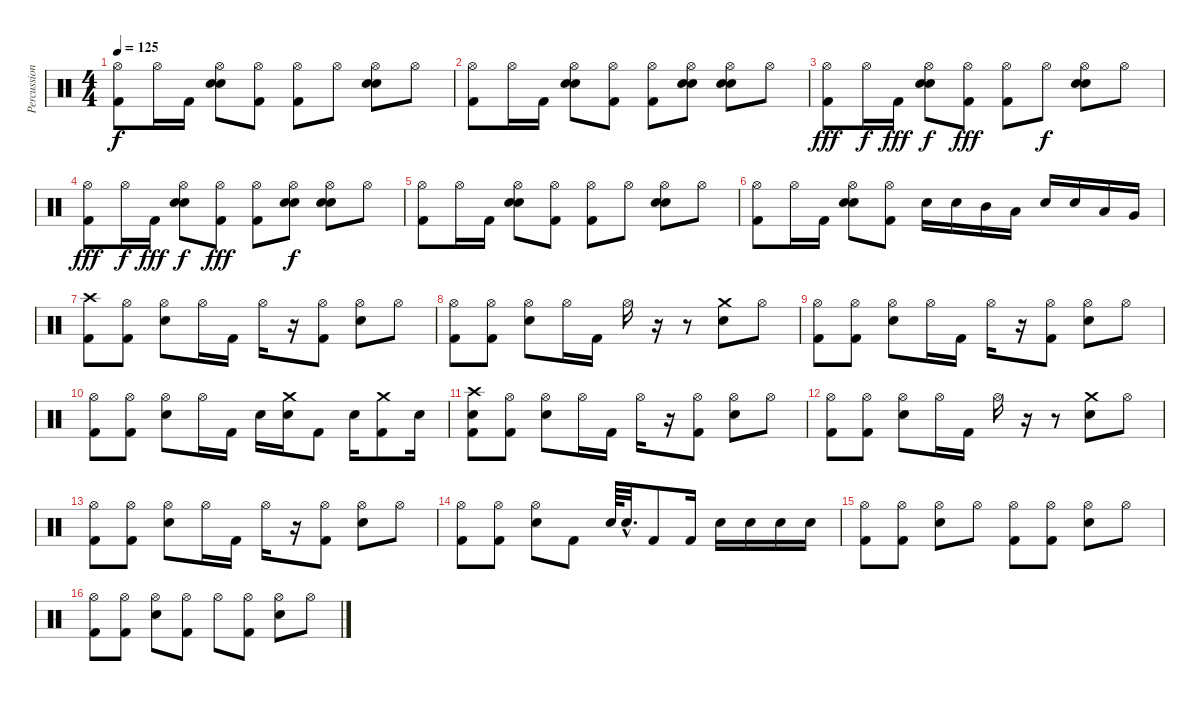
\track ("Percussion" "Percussion") {instrument percussion}
\staff {score}
\articulation defaults
\ts (4 4)
\tempo 125
\clef neutral
\ks c
("Hi-Hat (open)" "Kick (hit) 2").8{dy f} "Hi-Hat (open)".16 "Kick (hit) 2".16 ("Hand Clap (hit)" "Hi-Hat (open)" "Electric Snare (hit)").8 ("Hi-Hat (open)" "Kick (hit) 2").8 ("Hi-Hat (open)" "Kick (hit) 2").8 "Hi-Hat (open)".8 ("Hand Clap (hit)" "Hi-Hat (open)" "Electric Snare (hit)").8 "Hi-Hat (open)".8 |
("Hi-Hat (open)" "Kick (hit) 2").8 "Hi-Hat (open)".16 "Kick (hit) 2".16 ("Hand Clap (hit)" "Hi-Hat (open)" "Electric Snare (hit)").8 ("Hi-Hat (open)" "Kick (hit) 2").8 ("Hi-Hat (open)" "Kick (hit) 2").8 ("Hand Clap (hit)" "Hi-Hat (open)" "Electric Snare (hit)").8 ("Hand Clap (hit)" "Hi-Hat (open)" "Electric Snare (hit)").8 "Hi-Hat (open)".8 |
("Hi-Hat (open)" "Kick (hit) 2").8{dy fff} "Hi-Hat (open)".16{dy f} "Kick (hit) 2".16{dy fff} ("Hand Clap (hit)" "Hi-Hat (open)" "Electric Snare (hit)").8{dy f} ("Hi-Hat (open)" "Kick (hit) 2").8{dy fff} ("Hi-Hat (open)" "Kick (hit) 2").8 "Hi-Hat (open)".8{dy f} ("Hand Clap (hit)" "Hi-Hat (open)" "Electric Snare (hit)").8 "Hi-Hat (open)".8 |
("Hi-Hat (open)" "Kick (hit) 2").8{dy fff} "Hi-Hat (open)".16{dy f} "Kick (hit) 2".16{dy fff} ("Hand Clap (hit)" "Hi-Hat (open)" "Electric Snare (hit)").8{dy f} ("Hi-Hat (open)" "Kick (hit) 2").8{dy fff} ("Hi-Hat (open)" "Kick (hit) 2").8 ("Hand Clap (hit)" "Hi-Hat (open)" "Electric Snare (hit)").8{dy f} ("Hand Clap (hit)" "Hi-Hat (open)" "Electric Snare (hit)").8 "Hi-Hat (open)".8 |
("Hi-Hat (open)" "Kick (hit) 2").8 "Hi-Hat (open)".16 "Kick (hit) 2".16 ("Hand Clap (hit)" "Hi-Hat (open)" "Electric Snare (hit)").8 ("Hi-Hat (open)" "Kick (hit) 2").8 ("Hi-Hat (open)" "Kick (hit) 2").8 "Hi-Hat (open)".8 ("Hand Clap (hit)" "Hi-Hat (open)" "Electric Snare (hit)").8 "Hi-Hat (open)".8 |
("Hi-Hat (open)" "Kick (hit) 2").8 "Hi-Hat (open)".16 "Kick (hit) 2".16 ("Hand Clap (hit)" "Hi-Hat (open)" "Electric Snare (hit)").8 ("Hi-Hat (open)" "Kick (hit) 2").8 "Electric Snare (hit)".16 "Electric Snare (hit)".16 "Mid Tom (hit)".16 "Low Tom (hit)".16 "Electric Snare (hit)".16 "Electric Snare (hit)".16 "Low Tom (hit)".16 "Very Low Tom (hit)".16 |
("Crash high (hit)" "Kick (hit) 2").8 ("Hi-Hat (open)" "Kick (hit) 2").8 ("Hi-Hat (open)" "Electric Snare (hit)").8 "Hi-Hat (open)".16 "Kick (hit) 2".16 "Hi-Hat (open)".16 r.16 ("Hi-Hat (open)" "Kick (hit) 2").8 ("Hi-Hat (open)" "Electric Snare (hit)").8 "Hi-Hat (open)".8 |
("Hi-Hat (open)" "Kick (hit) 2").8 ("Hi-Hat (open)" "Kick (hit) 2").8 ("Hi-Hat (open)" "Electric Snare (hit)").8 "Hi-Hat (open)".16 "Kick (hit) 2".16 "Hi-Hat (open)".16 r.16 r.8 ("Crash medium (hit)" "Electric Snare (hit)").8 "Hi-Hat (open)".8 |
("Hi-Hat (open)" "Kick (hit) 2").8 ("Hi-Hat (open)" "Kick (hit) 2").8 ("Hi-Hat (open)" "Electric Snare (hit)").8 "Hi-Hat (open)".16 "Kick (hit) 2".16 "Hi-Hat (open)".16 r.16 ("Hi-Hat (open)" "Kick (hit) 2").8 ("Hi-Hat (open)" "Electric Snare (hit)").8 "Hi-Hat (open)".8 |
("Hi-Hat (open)" "Kick (hit) 2").8 ("Hi-Hat (open)" "Kick (hit) 2").8 ("Hi-Hat (open)" "Electric Snare (hit)").8 "Hi-Hat (open)".16 "Kick (hit) 2".16 "Electric Snare (hit)".16 ("Crash medium (hit)" "Electric Snare (hit)").16 "Kick (hit) 2".8 "Electric Snare (hit)".16 ("Crash medium (hit)" "Kick (hit) 2").8 "Electric Snare (hit)".16 |
("Crash high (hit)" "Electric Snare (hit)" "Kick (hit) 2").8 ("Hi-Hat (open)" "Kick (hit) 2").8 ("Hi-Hat (open)" "Electric Snare (hit)").8 "Hi-Hat (open)".16 "Kick (hit) 2".16 "Hi-Hat (open)".16 r.16 ("Hi-Hat (open)" "Kick (hit) 2").8 ("Hi-Hat (open)" "Electric Snare (hit)").8 "Hi-Hat (open)".8 |
("Hi-Hat (open)" "Kick (hit) 2").8 ("Hi-Hat (open)" "Kick (hit) 2").8 ("Hi-Hat (open)" "Electric Snare (hit)").8 "Hi-Hat (open)".16 "Kick (hit) 2".16 "Hi-Hat (open)".16 r.16 r.8 ("Crash medium (hit)" "Electric Snare (hit)").8 "Hi-Hat (open)".8 |
("Hi-Hat (open)" "Kick (hit) 2").8 ("Hi-Hat (open)" "Kick (hit) 2").8 ("Hi-Hat (open)" "Electric Snare (hit)").8 "Hi-Hat (open)".16 "Kick (hit) 2".16 "Hi-Hat (open)".16 r.16 ("Hi-Hat (open)" "Kick (hit) 2").8 ("Hi-Hat (open)" "Electric Snare (hit)").8 "Hi-Hat (open)".8 |
("Hi-Hat (open)" "Kick (hit) 2").8 ("Hi-Hat (open)" "Kick (hit) 2").8 ("Hi-Hat (open)" "Electric Snare (hit)").8 "Kick (hit) 2".8 "Electric Snare (hit)".64 "Electric Snare (hit)"{hac}.32{d} "Kick (hit) 2".8 "Kick (hit) 2".16 "Electric Snare (hit)".16 "Electric Snare (hit)".16 "Electric Snare (hit)".16 "Electric Snare (hit)".16 |
("Hi-Hat (open)" "Kick (hit) 2").8 ("Hi-Hat (open)" "Kick (hit) 2").8 ("Hi-Hat (open)" "Electric Snare (hit)").8 "Hi-Hat (open)".8 ("Hi-Hat (open)" "Kick (hit) 2").8 ("Hi-Hat (open)" "Kick (hit) 2").8 ("Hi-Hat (open)" "Electric Snare (hit)").8 "Hi-Hat (open)".8 |
("Hi-Hat (open)" "Kick (hit) 2").8 ("Hi-Hat (open)" "Kick (hit) 2").8 ("Hi-Hat (open)" "Electric Snare (hit)").8 ("Hi-Hat (open)" "Kick (hit) 2").8 "Hi-Hat (open)".8 ("Hi-Hat (open)" "Kick (hit) 2").8 ("Hi-Hat (open)" "Electric Snare (hit)").8 "Hi-Hat (open)".8
